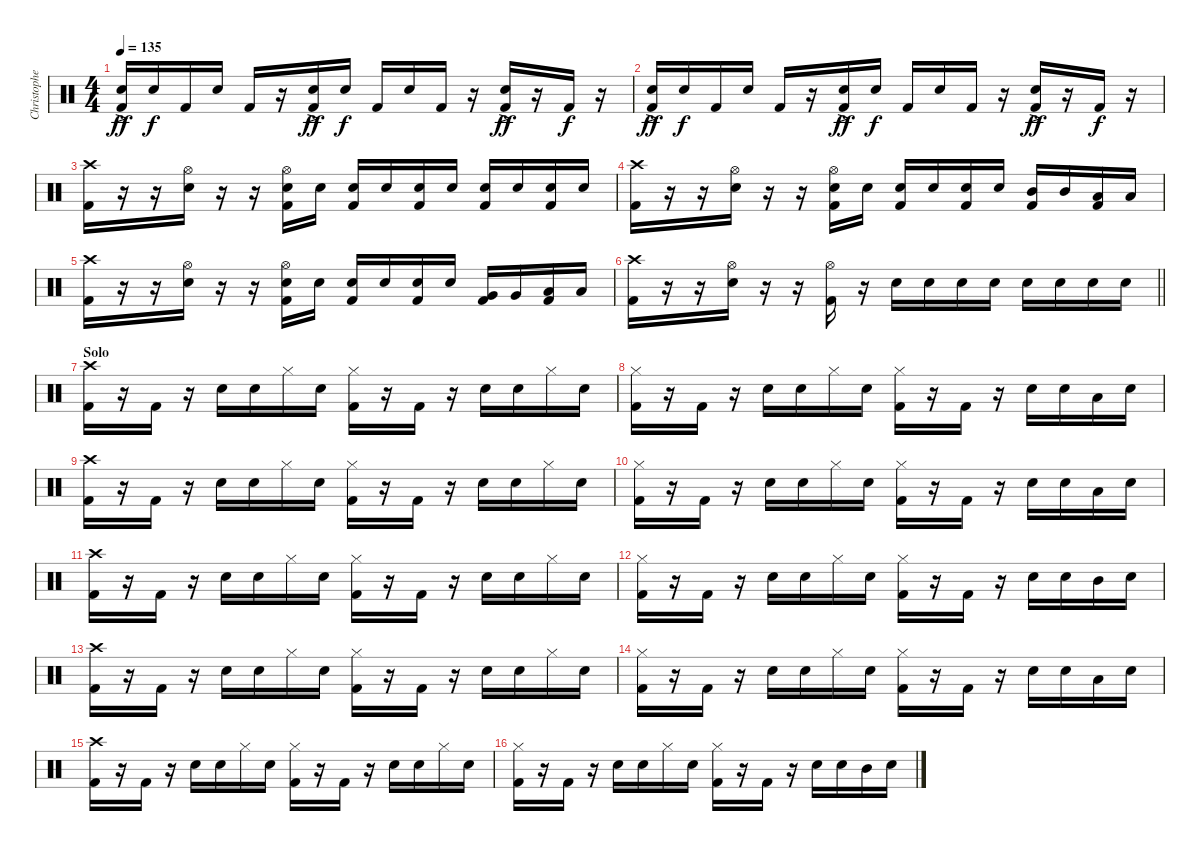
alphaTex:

\track ("Christopher - Drums" "Christophe") {instrument percussion}
\staff {score}
\articulation defaults
\ts (4 4)
\tempo 135
\clef neutral
\ks c
("Electric Snare (hit)" "Kick (hit) 2"{ac}).16{dy ff} "Electric Snare (hit)".16{dy f} "Kick (hit) 2".16 "Electric Snare (hit)".16 "Kick (hit) 2".16 r.16 ("Electric Snare (hit)" "Kick (hit) 2"{ac}).16{dy ff} "Electric Snare (hit)".16{dy f} "Kick (hit) 2".16 "Electric Snare (hit)".16 "Kick (hit) 2".16 r.16 ("Electric Snare (hit)" "Kick (hit) 2"{ac}).16{dy ff} r.16 "Kick (hit) 2".16{dy f} r.16 |
("Electric Snare (hit)" "Kick (hit) 2"{ac}).16{dy ff} "Electric Snare (hit)".16{dy f} "Kick (hit) 2".16 "Electric Snare (hit)".16 "Kick (hit) 2".16 r.16 ("Electric Snare (hit)" "Kick (hit) 2"{ac}).16{dy ff} "Electric Snare (hit)".16{dy f} "Kick (hit) 2".16 "Electric Snare (hit)".16 "Kick (hit) 2".16 r.16 ("Electric Snare (hit)" "Kick (hit) 2"{ac}).16{dy ff} r.16 "Kick (hit) 2".16{dy f} r.16 |
("Crash high (hit)" "Kick (hit) 2").16 r.16 r.16 ("Hi-Hat (open)" "Electric Snare (hit)").16 r.16 r.16 ("Hi-Hat (open)" "Electric Snare (hit)" "Kick (hit) 2").16 "Electric Snare (hit)".16 ("Electric Snare (hit)" "Kick (hit) 2").16 "Electric Snare (hit)".16 ("Electric Snare (hit)" "Kick (hit) 2").16 "Electric Snare (hit)".16 ("Electric Snare (hit)" "Kick (hit) 2").16 "Electric Snare (hit)".16 ("Electric Snare (hit)" "Kick (hit) 2").16 "Electric Snare (hit)".16 |
("Crash high (hit)" "Kick (hit) 2").16 r.16 r.16 ("Hi-Hat (open)" "Electric Snare (hit)").16 r.16 r.16 ("Hi-Hat (open)" "Electric Snare (hit)" "Kick (hit) 2").16 "Electric Snare (hit)".16 ("Electric Snare (hit)" "Kick (hit) 2").16 "Electric Snare (hit)".16 ("Electric Snare (hit)" "Kick (hit) 2").16 "Electric Snare (hit)".16 ("Mid Tom (hit)" "Kick (hit) 2").16 "Mid Tom (hit)".16 ("Low Tom (hit)" "Kick (hit) 2").16 "Low Tom (hit)".16 |
("Crash high (hit)" "Kick (hit) 2").16 r.16 r.16 ("Hi-Hat (open)" "Electric Snare (hit)").16 r.16 r.16 ("Hi-Hat (open)" "Electric Snare (hit)" "Kick (hit) 2").16 "Electric Snare (hit)".16 ("Electric Snare (hit)" "Kick (hit) 2").16 "Electric Snare (hit)".16 ("Electric Snare (hit)" "Kick (hit) 2").16 "Electric Snare (hit)".16 ("Very Low Tom (hit)" "Kick (hit) 2").16 "Very Low Tom (hit)".16 ("Low Floor Tom (hit)" "Kick (hit) 2").16 "Low Floor Tom (hit)".16 |
\barLineRight lightlight
("Crash high (hit)" "Kick (hit) 2").16 r.16 r.16 ("Hi-Hat (open)" "Electric Snare (hit)").16 r.16 r.16 ("Hi-Hat (open)" "Kick (hit) 2").16 r.16 "Electric Snare (hit)".16 "Electric Snare (hit)".16 "Electric Snare (hit)".16 "Electric Snare (hit)".16 "Electric Snare (hit)".16 "Electric Snare (hit)".16 "Electric Snare (hit)".16 "Electric Snare (hit)".16 |
\section ("" "Solo")
("Crash high (hit)" "Kick (hit) 2").16 r.16 "Kick (hit) 2".16 r.16 "Electric Snare (hit)".16 "Electric Snare (hit)".16 "Hi-Hat (closed)".16 "Electric Snare (hit)".16 ("Hi-Hat (closed)" "Kick (hit) 2").16 r.16 "Kick (hit) 2".16 r.16 "Electric Snare (hit)".16 "Electric Snare (hit)".16 "Hi-Hat (closed)".16 "Electric Snare (hit)".16 |
("Hi-Hat (closed)" "Kick (hit) 2").16 r.16 "Kick (hit) 2".16 r.16 "Electric Snare (hit)".16 "Electric Snare (hit)".16 "Hi-Hat (closed)".16 "Electric Snare (hit)".16 ("Hi-Hat (closed)" "Kick (hit) 2").16 r.16 "Kick (hit) 2".16 r.16 "Electric Snare (hit)".16 "Electric Snare (hit)".16 "Low Tom (hit)".16 "Electric Snare (hit)".16 |
("Crash high (hit)" "Kick (hit) 2").16 r.16 "Kick (hit) 2".16 r.16 "Electric Snare (hit)".16 "Electric Snare (hit)".16 "Hi-Hat (closed)".16 "Electric Snare (hit)".16 ("Hi-Hat (closed)" "Kick (hit) 2").16 r.16 "Kick (hit) 2".16 r.16 "Electric Snare (hit)".16 "Electric Snare (hit)".16 "Hi-Hat (closed)".16 "Electric Snare (hit)".16 |
("Hi-Hat (closed)" "Kick (hit) 2").16 r.16 "Kick (hit) 2".16 r.16 "Electric Snare (hit)".16 "Electric Snare (hit)".16 "Hi-Hat (closed)".16 "Electric Snare (hit)".16 ("Hi-Hat (closed)" "Kick (hit) 2").16 r.16 "Kick (hit) 2".16 r.16 "Electric Snare (hit)".16 "Electric Snare (hit)".16 "Low Floor Tom (hit)".16 "Electric Snare (hit)".16 |
("Crash high (hit)" "Kick (hit) 2").16 r.16 "Kick (hit) 2".16 r.16 "Electric Snare (hit)".16 "Electric Snare (hit)".16 "Hi-Hat (closed)".16 "Electric Snare (hit)".16 ("Hi-Hat (closed)" "Kick (hit) 2").16 r.16 "Kick (hit) 2".16 r.16 "Electric Snare (hit)".16 "Electric Snare (hit)".16 "Hi-Hat (closed)".16 "Electric Snare (hit)".16 |
("Hi-Hat (closed)" "Kick (hit) 2").16 r.16 "Kick (hit) 2".16 r.16 "Electric Snare (hit)".16 "Electric Snare (hit)".16 "Hi-Hat (closed)".16 "Electric Snare (hit)".16 ("Hi-Hat (closed)" "Kick (hit) 2").16 r.16 "Kick (hit) 2".16 r.16 "Electric Snare (hit)".16 "Electric Snare (hit)".16 "Mid Tom (hit)".16 "Electric Snare (hit)".16 |
("Crash high (hit)" "Kick (hit) 2").16 r.16 "Kick (hit) 2".16 r.16 "Electric Snare (hit)".16 "Electric Snare (hit)".16 "Hi-Hat (closed)".16 "Electric Snare (hit)".16 ("Hi-Hat (closed)" "Kick (hit) 2").16 r.16 "Kick (hit) 2".16 r.16 "Electric Snare (hit)".16 "Electric Snare (hit)".16 "Hi-Hat (closed)".16 "Electric Snare (hit)".16 |
("Hi-Hat (closed)" "Kick (hit) 2").16 r.16 "Kick (hit) 2".16 r.16 "Electric Snare (hit)".16 "Electric Snare (hit)".16 "Hi-Hat (closed)".16 "Electric Snare (hit)".16 ("Hi-Hat (closed)" "Kick (hit) 2").16 r.16 "Kick (hit) 2".16 r.16 "Electric Snare (hit)".16 "Electric Snare (hit)".16 "Low Floor Tom (hit)".16 "Electric Snare (hit)".16 |
("Crash high (hit)" "Kick (hit) 2").16 r.16 "Kick (hit) 2".16 r.16 "Electric Snare (hit)".16 "Electric Snare (hit)".16 "Hi-Hat (closed)".16 "Electric Snare (hit)".16 ("Hi-Hat (closed)" "Kick (hit) 2").16 r.16 "Kick (hit) 2".16 r.16 "Electric Snare (hit)".16 "Electric Snare (hit)".16 "Hi-Hat (closed)".16 "Electric Snare (hit)".16 |
("Hi-Hat (closed)" "Kick (hit) 2").16 r.16 "Kick (hit) 2".16 r.16 "Electric Snare (hit)".16 "Electric Snare (hit)".16 "Hi-Hat (closed)".16 "Electric Snare (hit)".16 ("Hi-Hat (closed)" "Kick (hit) 2").16 r.16 "Kick (hit) 2".16 r.16 "Electric Snare (hit)".16 "Electric Snare (hit)".16 "Mid Tom (hit)".16 "Electric Snare (hit)".16
